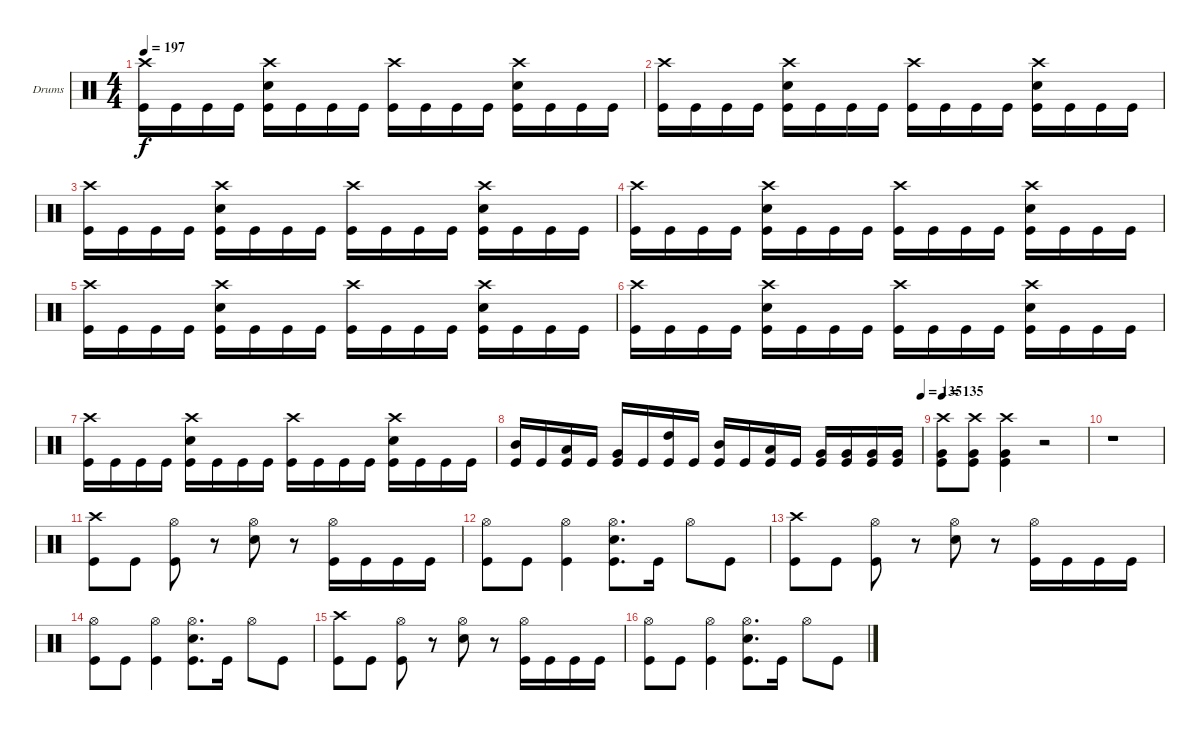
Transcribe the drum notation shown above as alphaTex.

\bracketExtendMode groupsimilarinstruments
\firstSystemTrackNameOrientation horizontal
\otherSystemsTrackNameOrientation horizontal
\track ("Drumkit" "Drums") {instrument percussion}
\staff {score}
\articulation defaults
\ts (4 4)
\tempo 197
\clef neutral
\ks c
("Crash high (hit)" "Kick (hit)").16{dy f} "Kick (hit)".16 "Kick (hit)".16 "Kick (hit)".16 ("Crash high (hit)" "Snare (hit) 2" "Kick (hit)").16 "Kick (hit)".16 "Kick (hit)".16 "Kick (hit)".16 ("Crash high (hit)" "Kick (hit)").16 "Kick (hit)".16 "Kick (hit)".16 "Kick (hit)".16 ("Crash high (hit)" "Snare (hit) 2" "Kick (hit)").16 "Kick (hit)".16 "Kick (hit)".16 "Kick (hit)".16 |
("Crash high (hit)" "Kick (hit)").16 "Kick (hit)".16 "Kick (hit)".16 "Kick (hit)".16 ("Crash high (hit)" "Snare (hit) 2" "Kick (hit)").16 "Kick (hit)".16 "Kick (hit)".16 "Kick (hit)".16 ("Crash high (hit)" "Kick (hit)").16 "Kick (hit)".16 "Kick (hit)".16 "Kick (hit)".16 ("Crash high (hit)" "Snare (hit) 2" "Kick (hit)").16 "Kick (hit)".16 "Kick (hit)".16 "Kick (hit)".16 |
("Crash high (hit)" "Kick (hit)").16 "Kick (hit)".16 "Kick (hit)".16 "Kick (hit)".16 ("Crash high (hit)" "Snare (hit) 2" "Kick (hit)").16 "Kick (hit)".16 "Kick (hit)".16 "Kick (hit)".16 ("Crash high (hit)" "Kick (hit)").16 "Kick (hit)".16 "Kick (hit)".16 "Kick (hit)".16 ("Crash high (hit)" "Snare (hit) 2" "Kick (hit)").16 "Kick (hit)".16 "Kick (hit)".16 "Kick (hit)".16 |
("Crash high (hit)" "Kick (hit)").16 "Kick (hit)".16 "Kick (hit)".16 "Kick (hit)".16 ("Crash high (hit)" "Snare (hit) 2" "Kick (hit)").16 "Kick (hit)".16 "Kick (hit)".16 "Kick (hit)".16 ("Crash high (hit)" "Kick (hit)").16 "Kick (hit)".16 "Kick (hit)".16 "Kick (hit)".16 ("Crash high (hit)" "Snare (hit) 2" "Kick (hit)").16 "Kick (hit)".16 "Kick (hit)".16 "Kick (hit)".16 |
("Crash high (hit)" "Kick (hit)").16 "Kick (hit)".16 "Kick (hit)".16 "Kick (hit)".16 ("Crash high (hit)" "Snare (hit) 2" "Kick (hit)").16 "Kick (hit)".16 "Kick (hit)".16 "Kick (hit)".16 ("Crash high (hit)" "Kick (hit)").16 "Kick (hit)".16 "Kick (hit)".16 "Kick (hit)".16 ("Crash high (hit)" "Snare (hit) 2" "Kick (hit)").16 "Kick (hit)".16 "Kick (hit)".16 "Kick (hit)".16 |
("Crash high (hit)" "Kick (hit)").16 "Kick (hit)".16 "Kick (hit)".16 "Kick (hit)".16 ("Crash high (hit)" "Snare (hit) 2" "Kick (hit)").16 "Kick (hit)".16 "Kick (hit)".16 "Kick (hit)".16 ("Crash high (hit)" "Kick (hit)").16 "Kick (hit)".16 "Kick (hit)".16 "Kick (hit)".16 ("Crash high (hit)" "Snare (hit) 2" "Kick (hit)").16 "Kick (hit)".16 "Kick (hit)".16 "Kick (hit)".16 |
("Crash high (hit)" "Kick (hit)").16 "Kick (hit)".16 "Kick (hit)".16 "Kick (hit)".16 ("Crash high (hit)" "Snare (hit) 2" "Kick (hit)").16 "Kick (hit)".16 "Kick (hit)".16 "Kick (hit)".16 ("Crash high (hit)" "Kick (hit)").16 "Kick (hit)".16 "Kick (hit)".16 "Kick (hit)".16 ("Crash high (hit)" "Snare (hit) 2" "Kick (hit)").16 "Kick (hit)".16 "Kick (hit)".16 "Kick (hit)".16 |
\tempo (135 1)
("Mid Tom (hit)" "Kick (hit)").16 "Kick (hit)".16 ("Low Tom (hit)" "Kick (hit)").16 "Kick (hit)".16 ("Very Low Tom (hit)" "Kick (hit)").16 "Kick (hit)".16 ("High Tom (hit)" "Kick (hit)").16 "Kick (hit)".16 ("Mid Tom (hit)" "Kick (hit)").16 "Kick (hit)".16 ("Low Tom (hit)" "Kick (hit)").16 "Kick (hit)".16 ("Very Low Tom (hit)" "Kick (hit)").16 ("Very Low Tom (hit)" "Kick (hit)").16 ("Very Low Tom (hit)" "Kick (hit)").16 ("Very Low Tom (hit)" "Kick (hit)").16 |
\tempo 135
("Crash high (hit)" "Very Low Tom (hit)" "Kick (hit)").8 ("Crash high (hit)" "Very Low Tom (hit)" "Kick (hit)").8 ("Crash high (hit)" "Very Low Tom (hit)" "Kick (hit)").4 r.2 |
r.1 |
("Crash high (hit)" "Kick (hit)").8 "Kick (hit)".8 ("Hi-Hat (open)" "Kick (hit)").8 r.8 ("Hi-Hat (open)" "Snare (hit) 2").8 r.8 ("Hi-Hat (open)" "Kick (hit)").16 "Kick (hit)".16 "Kick (hit)".16 "Kick (hit)".16 |
("Hi-Hat (open)" "Kick (hit)").8 "Kick (hit)".8 ("Hi-Hat (open)" "Kick (hit)").4 ("Hi-Hat (open)" "Snare (hit) 2" "Kick (hit)").8{d} "Kick (hit)".16 "Hi-Hat (open)".8 "Kick (hit)".8 |
("Crash high (hit)" "Kick (hit)").8 "Kick (hit)".8 ("Hi-Hat (open)" "Kick (hit)").8 r.8 ("Hi-Hat (open)" "Snare (hit) 2").8 r.8 ("Hi-Hat (open)" "Kick (hit)").16 "Kick (hit)".16 "Kick (hit)".16 "Kick (hit)".16 |
("Hi-Hat (open)" "Kick (hit)").8 "Kick (hit)".8 ("Hi-Hat (open)" "Kick (hit)").4 ("Hi-Hat (open)" "Snare (hit) 2" "Kick (hit)").8{d} "Kick (hit)".16 "Hi-Hat (open)".8 "Kick (hit)".8 |
("Crash high (hit)" "Kick (hit)").8 "Kick (hit)".8 ("Hi-Hat (open)" "Kick (hit)").8 r.8 ("Hi-Hat (open)" "Snare (hit) 2").8 r.8 ("Hi-Hat (open)" "Kick (hit)").16 "Kick (hit)".16 "Kick (hit)".16 "Kick (hit)".16 |
("Hi-Hat (open)" "Kick (hit)").8 "Kick (hit)".8 ("Hi-Hat (open)" "Kick (hit)").4 ("Hi-Hat (open)" "Snare (hit) 2" "Kick (hit)").8{d} "Kick (hit)".16 "Hi-Hat (open)".8 "Kick (hit)".8
